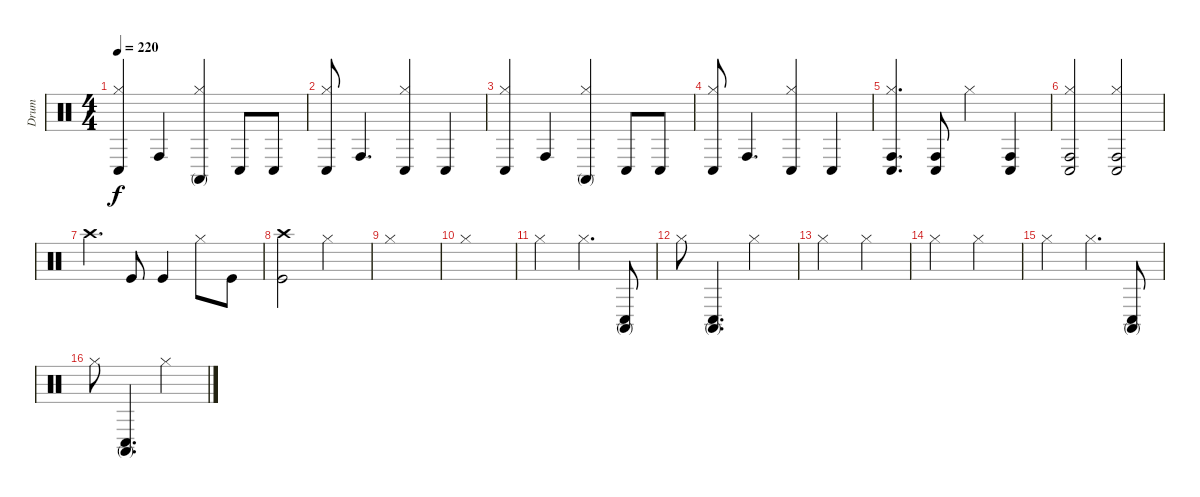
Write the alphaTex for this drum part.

\track ("Drum" "Drum") {instrument percussion}
\staff {score}
\articulation defaults
\ts (4 4)
\tempo 220
\clef neutral
\ks c
("Hi-Hat (closed)" "Conga low (hit)").4{dy f} "Conga high (hit)".4 ("Hi-Hat (closed)" "Conga high (mute)").4 "Conga low (hit)".8 "Conga low (hit)".8 |
("Hi-Hat (closed)" "Conga low (hit)").8 "Conga high (hit)".4{d} ("Hi-Hat (closed)" "Conga low (hit)").4 "Conga low (hit)".4 |
("Hi-Hat (closed)" "Conga low (hit)").4 "Conga high (hit)".4 ("Hi-Hat (closed)" "Conga high (mute)").4 "Conga low (hit)".8 "Conga low (hit)".8 |
("Hi-Hat (closed)" "Conga low (hit)").8 "Conga high (hit)".4{d} ("Hi-Hat (closed)" "Conga low (hit)").4 "Conga low (hit)".4 |
("Hi-Hat (closed)" "Conga low (hit)" "Conga high (hit)").4{d} ("Conga low (hit)" "Conga high (hit)").8 "Hi-Hat (closed)".4 ("Conga low (hit)" "Conga high (hit)").4 |
("Hi-Hat (closed)" "Conga low (hit)" "Conga high (hit)").2 ("Hi-Hat (closed)" "Conga low (hit)" "Conga high (hit)").2 |
"Crash high (hit)".4{d} "Kick (hit)".8 "Kick (hit)".4 "Hi-Hat (closed)".8 "Kick (hit)".8 |
("Crash high (hit)" "Kick (hit)").2 "Hi-Hat (closed)".2 |
"Hi-Hat (closed)".1 |
"Hi-Hat (closed)".1 |
"Hi-Hat (closed)".2 "Hi-Hat (closed)".4{d} ("Conga low (hit)" "Conga high (mute)").8 |
"Hi-Hat (closed)".8 ("Conga low (hit)" "Conga high (mute)").4{d} "Hi-Hat (closed)".2 |
"Hi-Hat (closed)".2 "Hi-Hat (closed)".2 |
"Hi-Hat (closed)".2 "Hi-Hat (closed)".2 |
"Hi-Hat (closed)".2 "Hi-Hat (closed)".4{d} ("Conga low (hit)" "Conga high (mute)").8 |
"Hi-Hat (closed)".8 ("Conga low (hit)" "Conga high (mute)").4{d} "Hi-Hat (closed)".2
